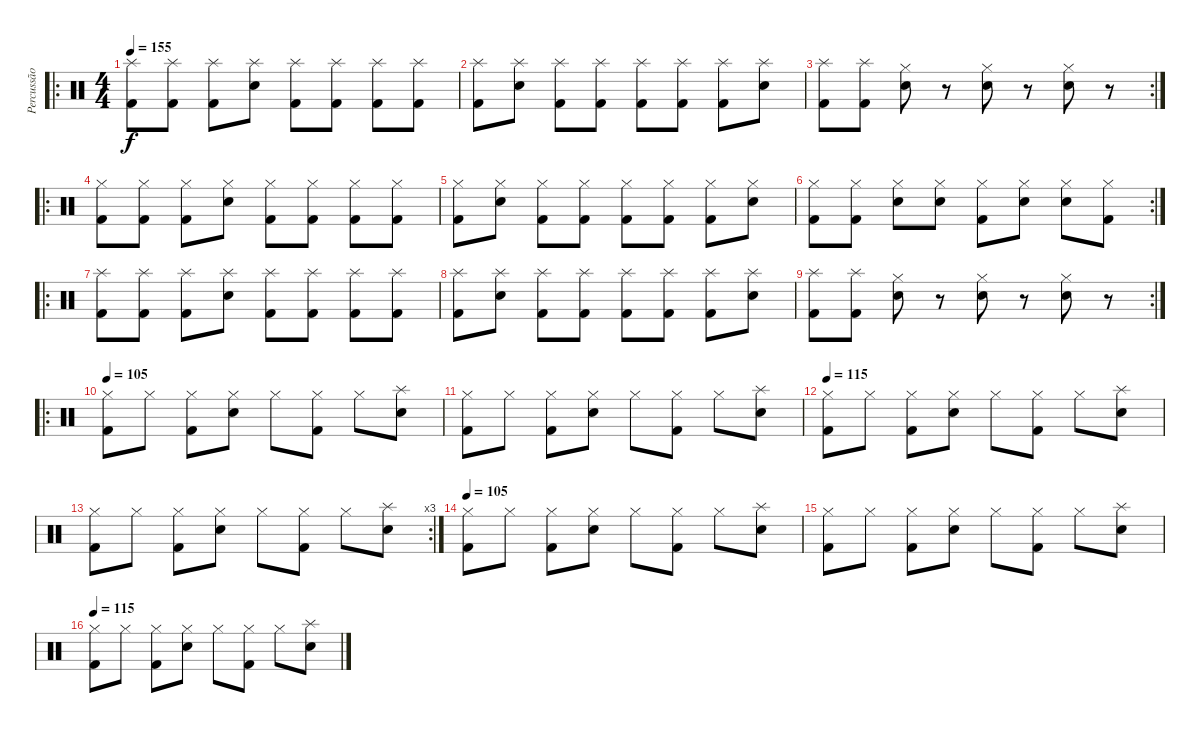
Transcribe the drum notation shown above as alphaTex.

\track ("Percussão" "Percussão") {instrument percussion}
\staff {score}
\articulation defaults
\ro
\ts (4 4)
\tempo 155
\clef neutral
\ks c
("Splash (hit)" "Kick (hit) 2").8{dy f} ("Splash (hit)" "Kick (hit) 2").8 ("Splash (hit)" "Kick (hit) 2").8 ("Splash (hit)" "Snare (hit) 2").8 ("Splash (hit)" "Kick (hit) 2").8 ("Splash (hit)" "Kick (hit) 2").8 ("Splash (hit)" "Kick (hit) 2").8 ("Splash (hit)" "Kick (hit) 2").8 |
("Splash (hit)" "Kick (hit) 2").8 ("Splash (hit)" "Snare (hit) 2").8 ("Splash (hit)" "Kick (hit) 2").8 ("Splash (hit)" "Kick (hit) 2").8 ("Splash (hit)" "Kick (hit) 2").8 ("Splash (hit)" "Kick (hit) 2").8 ("Splash (hit)" "Kick (hit) 2").8 ("Splash (hit)" "Snare (hit) 2").8 |
\rc 2
("Splash (hit)" "Kick (hit) 2").8 ("Splash (hit)" "Kick (hit) 2").8 ("Hi-Hat (closed)" "Snare (hit) 2").8 r.8 ("Hi-Hat (closed)" "Snare (hit) 2").8 r.8 ("Hi-Hat (closed)" "Snare (hit) 2").8 r.8 |
\ro
("Hi-Hat (closed)" "Kick (hit) 2").8 ("Hi-Hat (closed)" "Kick (hit) 2").8 ("Hi-Hat (closed)" "Kick (hit) 2").8 ("Hi-Hat (closed)" "Snare (hit) 2").8 ("Hi-Hat (closed)" "Kick (hit) 2").8 ("Hi-Hat (closed)" "Kick (hit) 2").8 ("Hi-Hat (closed)" "Kick (hit) 2").8 ("Hi-Hat (closed)" "Kick (hit) 2").8 |
("Hi-Hat (closed)" "Kick (hit) 2").8 ("Hi-Hat (closed)" "Snare (hit) 2").8 ("Hi-Hat (closed)" "Kick (hit) 2").8 ("Hi-Hat (closed)" "Kick (hit) 2").8 ("Hi-Hat (closed)" "Kick (hit) 2").8 ("Hi-Hat (closed)" "Kick (hit) 2").8 ("Hi-Hat (closed)" "Kick (hit) 2").8 ("Hi-Hat (closed)" "Snare (hit) 2").8 |
\rc 2
("Hi-Hat (closed)" "Kick (hit) 2").8 ("Hi-Hat (closed)" "Kick (hit) 2").8 ("Hi-Hat (closed)" "Snare (hit) 2").8 ("Hi-Hat (closed)" "Snare (hit) 2").8 ("Hi-Hat (closed)" "Kick (hit) 2").8 ("Hi-Hat (closed)" "Snare (hit) 2").8 ("Hi-Hat (closed)" "Snare (hit) 2").8 ("Hi-Hat (closed)" "Kick (hit) 2").8 |
\ro
("Splash (hit)" "Kick (hit) 2").8 ("Splash (hit)" "Kick (hit) 2").8 ("Splash (hit)" "Kick (hit) 2").8 ("Splash (hit)" "Snare (hit) 2").8 ("Splash (hit)" "Kick (hit) 2").8 ("Splash (hit)" "Kick (hit) 2").8 ("Splash (hit)" "Kick (hit) 2").8 ("Splash (hit)" "Kick (hit) 2").8 |
("Splash (hit)" "Kick (hit) 2").8 ("Splash (hit)" "Snare (hit) 2").8 ("Splash (hit)" "Kick (hit) 2").8 ("Splash (hit)" "Kick (hit) 2").8 ("Splash (hit)" "Kick (hit) 2").8 ("Splash (hit)" "Kick (hit) 2").8 ("Splash (hit)" "Kick (hit) 2").8 ("Splash (hit)" "Snare (hit) 2").8 |
\rc 2
("Splash (hit)" "Kick (hit) 2").8 ("Splash (hit)" "Kick (hit) 2").8 ("Hi-Hat (closed)" "Snare (hit) 2").8 r.8 ("Hi-Hat (closed)" "Snare (hit) 2").8 r.8 ("Hi-Hat (closed)" "Snare (hit) 2").8 r.8 |
\ro
\tempo 105
("Hi-Hat (closed)" "Kick (hit) 2").8 "Hi-Hat (closed)".8 ("Hi-Hat (closed)" "Kick (hit) 2").8 ("Hi-Hat (closed)" "Snare (hit) 2").8 "Hi-Hat (closed)".8 ("Hi-Hat (closed)" "Kick (hit) 2").8 "Hi-Hat (closed)".8 ("Splash (hit)" "Snare (hit) 2").8 |
("Hi-Hat (closed)" "Kick (hit) 2").8 "Hi-Hat (closed)".8 ("Hi-Hat (closed)" "Kick (hit) 2").8 ("Hi-Hat (closed)" "Snare (hit) 2").8 "Hi-Hat (closed)".8 ("Hi-Hat (closed)" "Kick (hit) 2").8 "Hi-Hat (closed)".8 ("Splash (hit)" "Snare (hit) 2").8 |
\tempo 115
("Hi-Hat (closed)" "Kick (hit) 2").8 "Hi-Hat (closed)".8 ("Hi-Hat (closed)" "Kick (hit) 2").8 ("Hi-Hat (closed)" "Snare (hit) 2").8 "Hi-Hat (closed)".8 ("Hi-Hat (closed)" "Kick (hit) 2").8 "Hi-Hat (closed)".8 ("Splash (hit)" "Snare (hit) 2").8 |
\rc 3
("Hi-Hat (closed)" "Kick (hit) 2").8 "Hi-Hat (closed)".8 ("Hi-Hat (closed)" "Kick (hit) 2").8 ("Hi-Hat (closed)" "Snare (hit) 2").8 "Hi-Hat (closed)".8 ("Hi-Hat (closed)" "Kick (hit) 2").8 "Hi-Hat (closed)".8 ("Splash (hit)" "Snare (hit) 2").8 |
\tempo 105
("Hi-Hat (closed)" "Kick (hit) 2").8 "Hi-Hat (closed)".8 ("Hi-Hat (closed)" "Kick (hit) 2").8 ("Hi-Hat (closed)" "Snare (hit) 2").8 "Hi-Hat (closed)".8 ("Hi-Hat (closed)" "Kick (hit) 2").8 "Hi-Hat (closed)".8 ("Splash (hit)" "Snare (hit) 2").8 |
("Hi-Hat (closed)" "Kick (hit) 2").8 "Hi-Hat (closed)".8 ("Hi-Hat (closed)" "Kick (hit) 2").8 ("Hi-Hat (closed)" "Snare (hit) 2").8 "Hi-Hat (closed)".8 ("Hi-Hat (closed)" "Kick (hit) 2").8 "Hi-Hat (closed)".8 ("Splash (hit)" "Snare (hit) 2").8 |
\tempo 115
("Hi-Hat (closed)" "Kick (hit) 2").8 "Hi-Hat (closed)".8 ("Hi-Hat (closed)" "Kick (hit) 2").8 ("Hi-Hat (closed)" "Snare (hit) 2").8 "Hi-Hat (closed)".8 ("Hi-Hat (closed)" "Kick (hit) 2").8 "Hi-Hat (closed)".8 ("Splash (hit)" "Snare (hit) 2").8
